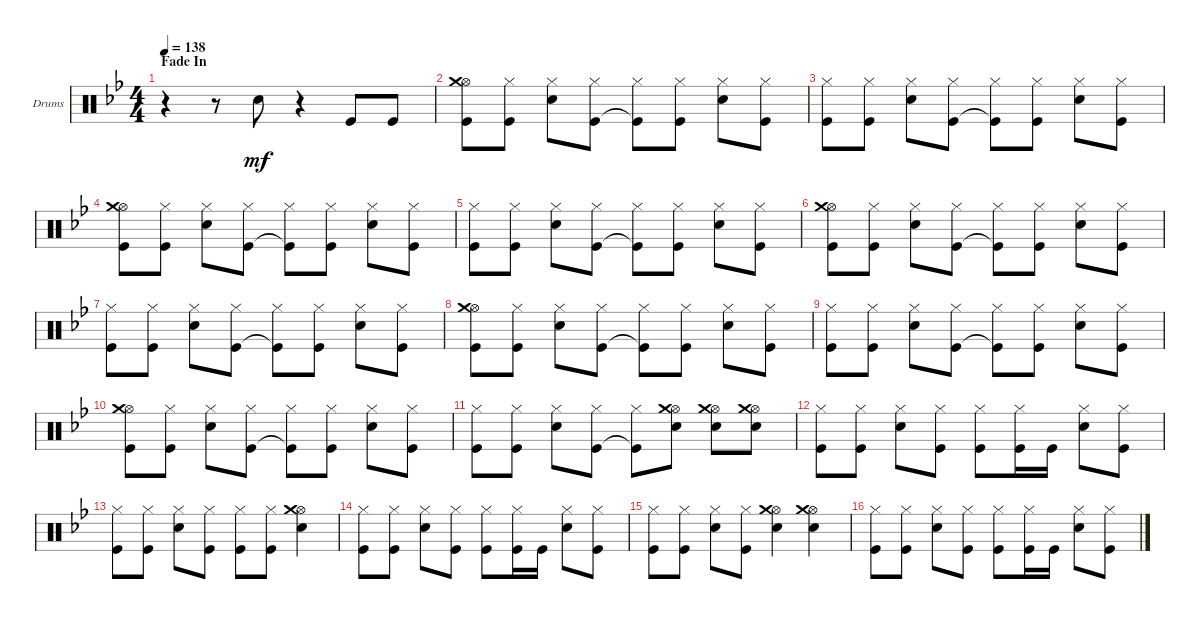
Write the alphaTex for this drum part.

\defaultSystemsLayout 4
\bracketExtendMode groupsimilarinstruments
\firstSystemTrackNameOrientation horizontal
\otherSystemsTrackNameOrientation horizontal
\track ("Drumkit" "Drums") {instrument percussion}
\staff {score}
\articulation defaults
\ts (4 4)
\section ("" "Fade In")
\tempo 138
\clef neutral
\scale
0.513043
\ks gminor
r.4{dy mf} r.8 "Snare (hit) 2".8 r.4 "Kick (hit)".8 "Kick (hit)".8 |
\scale
0.243478 ("Kick (hit)" "Hi-Hat (open)" "Crash medium (hit)").8 ("Hi-Hat (closed)" "Kick (hit)").8 ("Snare (hit) 2" "Hi-Hat (closed)").8 ("Hi-Hat (closed)" "Kick (hit)").8 ("Hi-Hat (closed)" "Kick (hit)"{t}).8 ("Kick (hit)" "Hi-Hat (closed)").8 ("Snare (hit) 2" "Hi-Hat (closed)").8 ("Hi-Hat (closed)" "Kick (hit)").8 |
\scale
0.243478 ("Kick (hit)" "Hi-Hat (closed)").8 ("Hi-Hat (closed)" "Kick (hit)").8 ("Snare (hit) 2" "Hi-Hat (closed)").8 ("Hi-Hat (closed)" "Kick (hit)").8 ("Hi-Hat (closed)" "Kick (hit)"{t}).8 ("Kick (hit)" "Hi-Hat (closed)").8 ("Snare (hit) 2" "Hi-Hat (closed)").8 ("Hi-Hat (closed)" "Kick (hit)").8 |
("Kick (hit)" "Hi-Hat (open)" "Crash medium (hit)").8 ("Hi-Hat (closed)" "Kick (hit)").8 ("Snare (hit) 2" "Hi-Hat (closed)").8 ("Hi-Hat (closed)" "Kick (hit)").8 ("Hi-Hat (closed)" "Kick (hit)"{t}).8 ("Kick (hit)" "Hi-Hat (closed)").8 ("Snare (hit) 2" "Hi-Hat (closed)").8 ("Hi-Hat (closed)" "Kick (hit)").8 |
("Kick (hit)" "Hi-Hat (closed)").8 ("Hi-Hat (closed)" "Kick (hit)").8 ("Snare (hit) 2" "Hi-Hat (closed)").8 ("Hi-Hat (closed)" "Kick (hit)").8 ("Hi-Hat (closed)" "Kick (hit)"{t}).8 ("Kick (hit)" "Hi-Hat (closed)").8 ("Snare (hit) 2" "Hi-Hat (closed)").8 ("Hi-Hat (closed)" "Kick (hit)").8 |
("Kick (hit)" "Hi-Hat (open)" "Crash medium (hit)").8 ("Hi-Hat (closed)" "Kick (hit)").8 ("Snare (hit) 2" "Hi-Hat (closed)").8 ("Hi-Hat (closed)" "Kick (hit)").8 ("Hi-Hat (closed)" "Kick (hit)"{t}).8 ("Kick (hit)" "Hi-Hat (closed)").8 ("Snare (hit) 2" "Hi-Hat (closed)").8 ("Hi-Hat (closed)" "Kick (hit)").8 |
("Kick (hit)" "Hi-Hat (closed)").8 ("Hi-Hat (closed)" "Kick (hit)").8 ("Snare (hit) 2" "Hi-Hat (closed)").8 ("Hi-Hat (closed)" "Kick (hit)").8 ("Hi-Hat (closed)" "Kick (hit)"{t}).8 ("Kick (hit)" "Hi-Hat (closed)").8 ("Snare (hit) 2" "Hi-Hat (closed)").8 ("Hi-Hat (closed)" "Kick (hit)").8 |
("Kick (hit)" "Hi-Hat (open)" "Crash medium (hit)").8 ("Hi-Hat (closed)" "Kick (hit)").8 ("Snare (hit) 2" "Hi-Hat (closed)").8 ("Hi-Hat (closed)" "Kick (hit)").8 ("Hi-Hat (closed)" "Kick (hit)"{t}).8 ("Kick (hit)" "Hi-Hat (closed)").8 ("Snare (hit) 2" "Hi-Hat (closed)").8 ("Hi-Hat (closed)" "Kick (hit)").8 |
("Kick (hit)" "Hi-Hat (closed)").8 ("Hi-Hat (closed)" "Kick (hit)").8 ("Snare (hit) 2" "Hi-Hat (closed)").8 ("Hi-Hat (closed)" "Kick (hit)").8 ("Hi-Hat (closed)" "Kick (hit)"{t}).8 ("Kick (hit)" "Hi-Hat (closed)").8 ("Snare (hit) 2" "Hi-Hat (closed)").8 ("Hi-Hat (closed)" "Kick (hit)").8 |
("Kick (hit)" "Hi-Hat (open)" "Crash medium (hit)").8 ("Hi-Hat (closed)" "Kick (hit)").8 ("Snare (hit) 2" "Hi-Hat (closed)").8 ("Hi-Hat (closed)" "Kick (hit)").8 ("Hi-Hat (closed)" "Kick (hit)"{t}).8 ("Kick (hit)" "Hi-Hat (closed)").8 ("Snare (hit) 2" "Hi-Hat (closed)").8 ("Hi-Hat (closed)" "Kick (hit)").8 |
("Kick (hit)" "Hi-Hat (closed)").8 ("Hi-Hat (closed)" "Kick (hit)").8 ("Snare (hit) 2" "Hi-Hat (closed)").8 ("Hi-Hat (closed)" "Kick (hit)").8 ("Hi-Hat (closed)" "Kick (hit)"{t}).8 ("Hi-Hat (open)" "Snare (hit) 2" "Crash medium (hit)").8 ("Snare (hit) 2" "Hi-Hat (open)" "Crash medium (hit)").8 ("Hi-Hat (open)" "Snare (hit) 2" "Crash medium (hit)").8 |
("Hi-Hat (closed)" "Kick (hit)").8 ("Hi-Hat (closed)" "Kick (hit)").8 ("Hi-Hat (closed)" "Snare (hit) 2").8 ("Hi-Hat (closed)" "Kick (hit)").8 ("Hi-Hat (closed)" "Kick (hit)").8 ("Hi-Hat (closed)" "Kick (hit)").16 "Kick (hit)".16 ("Hi-Hat (closed)" "Snare (hit) 2").8 ("Hi-Hat (closed)" "Kick (hit)").8 |
("Hi-Hat (closed)" "Kick (hit)").8 ("Hi-Hat (closed)" "Kick (hit)").8 ("Hi-Hat (closed)" "Snare (hit) 2").8 ("Hi-Hat (closed)" "Kick (hit)").8 ("Hi-Hat (closed)" "Kick (hit)").8 ("Hi-Hat (closed)" "Kick (hit)").8 ("Hi-Hat (open)" "Crash medium (hit)" "Snare (hit) 2").4 |
("Hi-Hat (closed)" "Kick (hit)").8 ("Hi-Hat (closed)" "Kick (hit)").8 ("Hi-Hat (closed)" "Snare (hit) 2").8 ("Hi-Hat (closed)" "Kick (hit)").8 ("Hi-Hat (closed)" "Kick (hit)").8 ("Hi-Hat (closed)" "Kick (hit)").16 "Kick (hit)".16 ("Hi-Hat (closed)" "Snare (hit) 2").8 ("Hi-Hat (closed)" "Kick (hit)").8 |
("Hi-Hat (closed)" "Kick (hit)").8 ("Hi-Hat (closed)" "Kick (hit)").8 ("Hi-Hat (closed)" "Snare (hit) 2").8 ("Hi-Hat (closed)" "Kick (hit)").8 ("Hi-Hat (open)" "Crash medium (hit)" "Snare (hit) 2").4 ("Hi-Hat (open)" "Crash medium (hit)" "Snare (hit) 2").4 |
("Hi-Hat (closed)" "Kick (hit)").8 ("Hi-Hat (closed)" "Kick (hit)").8 ("Hi-Hat (closed)" "Snare (hit) 2").8 ("Hi-Hat (closed)" "Kick (hit)").8 ("Hi-Hat (closed)" "Kick (hit)").8 ("Hi-Hat (closed)" "Kick (hit)").16 "Kick (hit)".16 ("Hi-Hat (closed)" "Snare (hit) 2").8 ("Hi-Hat (closed)" "Kick (hit)").8
